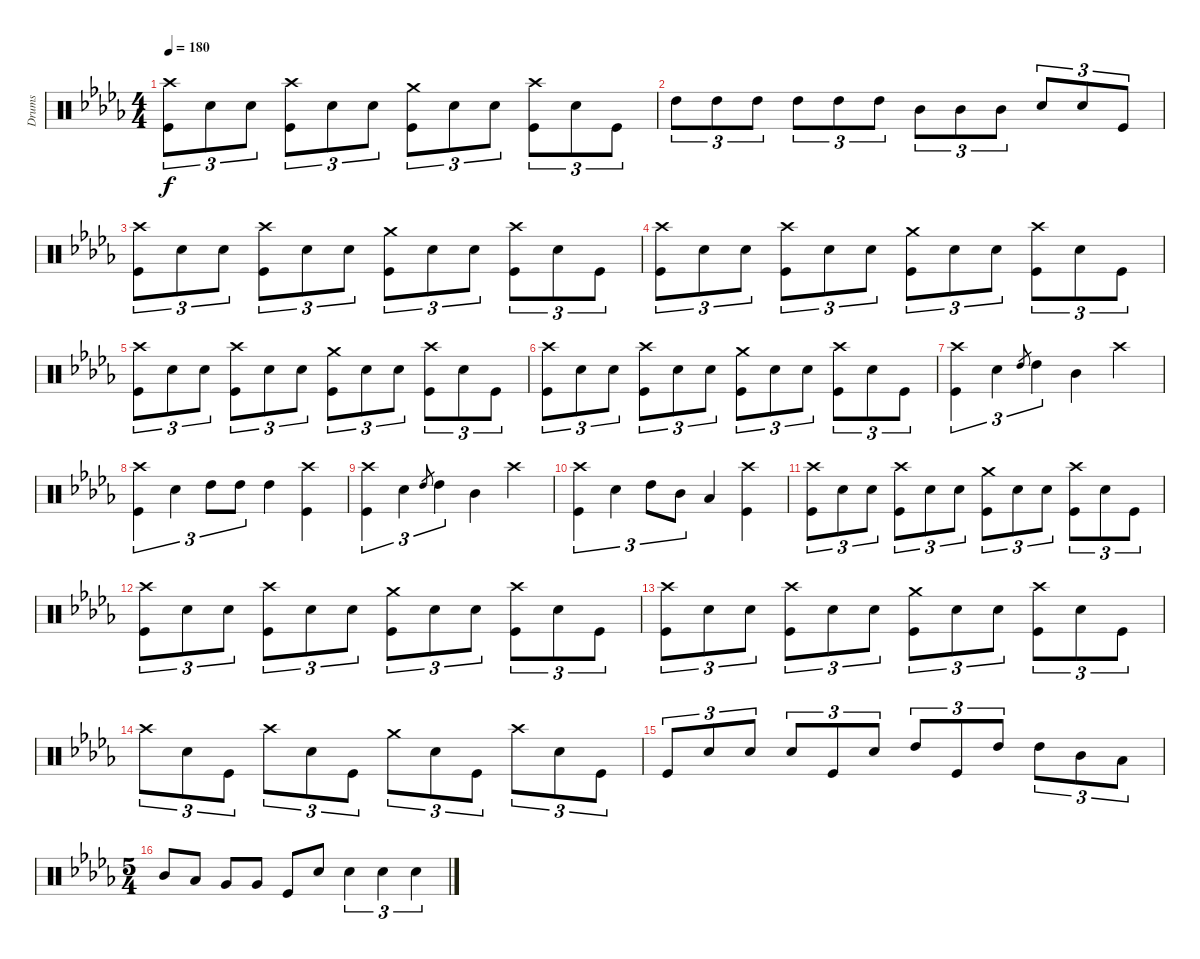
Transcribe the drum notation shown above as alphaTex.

\track ("Drums" "Drums") {instrument percussion}
\staff {score}
\articulation defaults
\ts (4 4)
\tempo 180
\clef neutral
\ks db
("Crash high (hit)" "Kick (hit)").8{tu (3 2) dy f} "Electric Snare (hit)".8{tu (3 2)} "Electric Snare (hit)".8{tu (3 2)} ("Crash high (hit)" "Kick (hit)").8{tu (3 2)} "Electric Snare (hit)".8{tu (3 2)} "Electric Snare (hit)".8{tu (3 2)} ("Crash medium (hit)" "Kick (hit)").8{tu (3 2)} "Electric Snare (hit)".8{tu (3 2)} "Electric Snare (hit)".8{tu (3 2)} ("Crash high (hit)" "Kick (hit)").8{tu (3 2)} "Electric Snare (hit)".8{tu (3 2)} "Kick (hit)".8{tu (3 2)} |
"High Tom (hit)".8{tu (3 2)} "High Tom (hit)".8{tu (3 2)} "High Tom (hit)".8{tu (3 2)} "High Tom (hit)".8{tu (3 2)} "High Tom (hit)".8{tu (3 2)} "High Tom (hit)".8{tu (3 2)} "Mid Tom (hit)".8{tu (3 2)} "Mid Tom (hit)".8{tu (3 2)} "Mid Tom (hit)".8{tu (3 2)} "Electric Snare (hit)".8{tu (3 2)} "Electric Snare (hit)".8{tu (3 2)} "Kick (hit)".8{tu (3 2)} |
("Crash high (hit)" "Kick (hit)").8{tu (3 2)} "Electric Snare (hit)".8{tu (3 2)} "Electric Snare (hit)".8{tu (3 2)} ("Crash high (hit)" "Kick (hit)").8{tu (3 2)} "Electric Snare (hit)".8{tu (3 2)} "Electric Snare (hit)".8{tu (3 2)} ("Crash medium (hit)" "Kick (hit)").8{tu (3 2)} "Electric Snare (hit)".8{tu (3 2)} "Electric Snare (hit)".8{tu (3 2)} ("Crash high (hit)" "Kick (hit)").8{tu (3 2)} "Electric Snare (hit)".8{tu (3 2)} "Kick (hit)".8{tu (3 2)} |
("Crash high (hit)" "Kick (hit)").8{tu (3 2)} "Electric Snare (hit)".8{tu (3 2)} "Electric Snare (hit)".8{tu (3 2)} ("Crash high (hit)" "Kick (hit)").8{tu (3 2)} "Electric Snare (hit)".8{tu (3 2)} "Electric Snare (hit)".8{tu (3 2)} ("Crash medium (hit)" "Kick (hit)").8{tu (3 2)} "Electric Snare (hit)".8{tu (3 2)} "Electric Snare (hit)".8{tu (3 2)} ("Crash high (hit)" "Kick (hit)").8{tu (3 2)} "Electric Snare (hit)".8{tu (3 2)} "Kick (hit)".8{tu (3 2)} |
("Crash high (hit)" "Kick (hit)").8{tu (3 2)} "Electric Snare (hit)".8{tu (3 2)} "Electric Snare (hit)".8{tu (3 2)} ("Crash high (hit)" "Kick (hit)").8{tu (3 2)} "Electric Snare (hit)".8{tu (3 2)} "Electric Snare (hit)".8{tu (3 2)} ("Crash medium (hit)" "Kick (hit)").8{tu (3 2)} "Electric Snare (hit)".8{tu (3 2)} "Electric Snare (hit)".8{tu (3 2)} ("Crash high (hit)" "Kick (hit)").8{tu (3 2)} "Electric Snare (hit)".8{tu (3 2)} "Kick (hit)".8{tu (3 2)} |
("Crash high (hit)" "Kick (hit)").8{tu (3 2)} "Electric Snare (hit)".8{tu (3 2)} "Electric Snare (hit)".8{tu (3 2)} ("Crash high (hit)" "Kick (hit)").8{tu (3 2)} "Electric Snare (hit)".8{tu (3 2)} "Electric Snare (hit)".8{tu (3 2)} ("Crash medium (hit)" "Kick (hit)").8{tu (3 2)} "Electric Snare (hit)".8{tu (3 2)} "Electric Snare (hit)".8{tu (3 2)} ("Crash high (hit)" "Kick (hit)").8{tu (3 2)} "Electric Snare (hit)".8{tu (3 2)} "Kick (hit)".8{tu (3 2)} |
("Crash high (hit)" "Kick (hit)").4{tu (3 2)} "Electric Snare (hit)".4{tu (3 2)} "High Tom (hit)".8{gr} "High Tom (hit)".4{tu (3 2)} "Mid Tom (hit)".4 "Crash high (hit)".4 |
("Crash high (hit)" "Kick (hit)").4{tu (3 2)} "Electric Snare (hit)".4{tu (3 2)} "High Tom (hit)".8{tu (3 2)} "High Tom (hit)".8{tu (3 2)} "High Tom (hit)".4 ("Crash high (hit)" "Kick (hit)").4 |
("Crash high (hit)" "Kick (hit)").4{tu (3 2)} "Electric Snare (hit)".4{tu (3 2)} "High Tom (hit)".8{gr} "High Tom (hit)".4{tu (3 2)} "Mid Tom (hit)".4 "Crash high (hit)".4 |
("Crash high (hit)" "Kick (hit)").4{tu (3 2)} "Electric Snare (hit)".4{tu (3 2)} "High Tom (hit)".8{tu (3 2)} "Mid Tom (hit)".8{tu (3 2)} "Low Tom (hit)".4 ("Crash high (hit)" "Kick (hit)").4 |
("Crash high (hit)" "Kick (hit)").8{tu (3 2)} "Electric Snare (hit)".8{tu (3 2)} "Electric Snare (hit)".8{tu (3 2)} ("Crash high (hit)" "Kick (hit)").8{tu (3 2)} "Electric Snare (hit)".8{tu (3 2)} "Electric Snare (hit)".8{tu (3 2)} ("Crash medium (hit)" "Kick (hit)").8{tu (3 2)} "Electric Snare (hit)".8{tu (3 2)} "Electric Snare (hit)".8{tu (3 2)} ("Crash high (hit)" "Kick (hit)").8{tu (3 2)} "Electric Snare (hit)".8{tu (3 2)} "Kick (hit)".8{tu (3 2)} |
("Crash high (hit)" "Kick (hit)").8{tu (3 2)} "Electric Snare (hit)".8{tu (3 2)} "Electric Snare (hit)".8{tu (3 2)} ("Crash high (hit)" "Kick (hit)").8{tu (3 2)} "Electric Snare (hit)".8{tu (3 2)} "Electric Snare (hit)".8{tu (3 2)} ("Crash medium (hit)" "Kick (hit)").8{tu (3 2)} "Electric Snare (hit)".8{tu (3 2)} "Electric Snare (hit)".8{tu (3 2)} ("Crash high (hit)" "Kick (hit)").8{tu (3 2)} "Electric Snare (hit)".8{tu (3 2)} "Kick (hit)".8{tu (3 2)} |
("Crash high (hit)" "Kick (hit)").8{tu (3 2)} "Electric Snare (hit)".8{tu (3 2)} "Electric Snare (hit)".8{tu (3 2)} ("Crash high (hit)" "Kick (hit)").8{tu (3 2)} "Electric Snare (hit)".8{tu (3 2)} "Electric Snare (hit)".8{tu (3 2)} ("Crash medium (hit)" "Kick (hit)").8{tu (3 2)} "Electric Snare (hit)".8{tu (3 2)} "Electric Snare (hit)".8{tu (3 2)} ("Crash high (hit)" "Kick (hit)").8{tu (3 2)} "Electric Snare (hit)".8{tu (3 2)} "Kick (hit)".8{tu (3 2)} |
"Crash high (hit)".8{tu (3 2)} "Electric Snare (hit)".8{tu (3 2)} "Kick (hit)".8{tu (3 2)} "Crash high (hit)".8{tu (3 2)} "Electric Snare (hit)".8{tu (3 2)} "Kick (hit)".8{tu (3 2)} "Crash medium (hit)".8{tu (3 2)} "Electric Snare (hit)".8{tu (3 2)} "Kick (hit)".8{tu (3 2)} "Crash high (hit)".8{tu (3 2)} "Electric Snare (hit)".8{tu (3 2)} "Kick (hit)".8{tu (3 2)} |
"Kick (hit)".8{tu (3 2)} "Electric Snare (hit)".8{tu (3 2)} "Electric Snare (hit)".8{tu (3 2)} "Electric Snare (hit)".8{tu (3 2)} "Kick (hit)".8{tu (3 2)} "Electric Snare (hit)".8{tu (3 2)} "High Tom (hit)".8{tu (3 2)} "Kick (hit)".8{tu (3 2)} "High Tom (hit)".8{tu (3 2)} "High Tom (hit)".8{tu (3 2)} "Mid Tom (hit)".8{tu (3 2)} "Low Tom (hit)".8{tu (3 2)} |
\ts (5 4)
"Mid Tom (hit)".8 "Low Tom (hit)".8 "Very Low Tom (hit)".8 "Very Low Tom (hit)".8 "Kick (hit)".8 "Electric Snare (hit)".8 "Electric Snare (hit)".4{tu (3 2)} "Electric Snare (hit)".4{tu (3 2)} "Snare (hit)".4{tu (3 2)}
